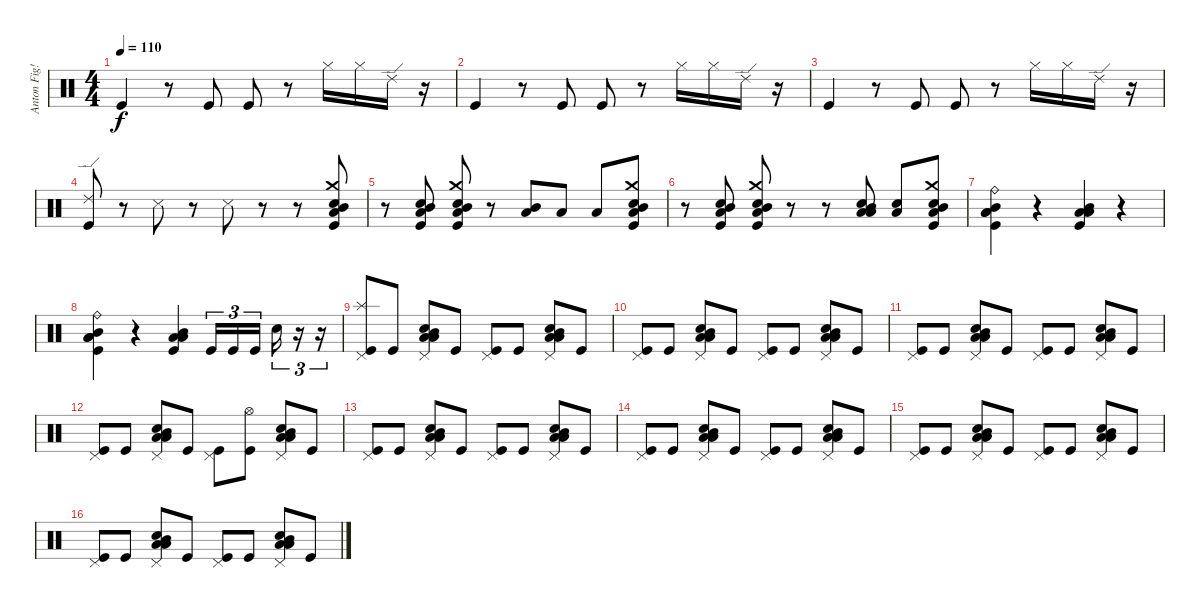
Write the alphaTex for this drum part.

\track ("Anton Fig!?!" "Anton Fig!") {instrument percussion}
\staff {score}
\articulation defaults
\ts (4 4)
\tempo 110
\clef neutral
\ks c "Kick (hit)".4{dy f}
r.8 "Kick (hit)".8 "Kick (hit)".8 r.8 "Hi-Hat (closed)".16 "Hi-Hat (closed)".16 "Ride (edge) 2".16 r.16 |
"Kick (hit)".4 r.8 "Kick (hit)".8 "Kick (hit)".8 r.8 "Hi-Hat (closed)".16 "Hi-Hat (closed)".16 "Ride (edge) 2".16 r.16 |
"Kick (hit)".4 r.8 "Kick (hit)".8 "Kick (hit)".8 r.8 "Hi-Hat (closed)".16 "Hi-Hat (closed)".16 "Ride (edge) 2".16 r.16 |
("Ride (edge) 2" "Kick (hit)").8 r.8 "Snare (side stick) 3".8 r.8 "Snare (side stick) 3".8 r.8 r.8 ("Crash medium (hit)" "Mid Tom (hit)" "Low Floor Tom (hit)" "Electric Snare (hit)" "Kick (hit)").8 |
r.8 ("Mid Tom (hit)" "Low Floor Tom (hit)" "Electric Snare (hit)" "Kick (hit)").8 ("Crash medium (hit)" "Mid Tom (hit)" "Low Floor Tom (hit)" "Electric Snare (hit)" "Kick (hit)").8 r.8 ("Mid Tom (hit)" "Low Floor Tom (hit)").8 "Low Floor Tom (hit)".8 "Low Floor Tom (hit)".8 ("Crash medium (hit)" "Mid Tom (hit)" "Low Floor Tom (hit)" "Electric Snare (hit)" "Kick (hit)").8 |
r.8 ("Mid Tom (hit)" "Low Floor Tom (hit)" "Electric Snare (hit)" "Kick (hit)").8 ("Crash medium (hit)" "Mid Tom (hit)" "Low Floor Tom (hit)" "Electric Snare (hit)" "Kick (hit)").8 r.8 r.8 ("Low Tom (hit)" "Low Floor Tom (hit)" "Mid Tom (hit)" "Electric Snare (hit)").8 ("Low Floor Tom (hit)" "Electric Snare (hit)").8 ("Crash medium (hit)" "Mid Tom (hit)" "Low Floor Tom (hit)" "Electric Snare (hit)" "Kick (hit)").8 |
("Ride (bell)" "Mid Tom (hit)" "Low Tom (hit)" "Low Floor Tom (hit)" "Kick (hit)").4 r.4 ("Mid Tom (hit)" "Low Tom (hit)" "Low Floor Tom (hit)" "Kick (hit)").4 r.4 |
("Ride (bell)" "Mid Tom (hit)" "Low Tom (hit)" "Low Floor Tom (hit)" "Kick (hit)").4 r.4 ("Mid Tom (hit)" "Low Tom (hit)" "Low Floor Tom (hit)" "Kick (hit)").4 "Kick (hit)".16{tu (3 2)} "Kick (hit)".16{tu (3 2)} "Kick (hit)".16{tu (3 2) beam splitsecondary} "Electric Snare (hit)".16{tu (3 2)} r.16{tu (3 2)} r.16{tu (3 2)} |
("Splash (hit)" "Kick (hit)" "Pedal Hi-Hat (hit)").8 "Kick (hit)".8 ("Low Tom (hit)" "Mid Tom (hit)" "Low Floor Tom (hit)" "Electric Snare (hit)" "Pedal Hi-Hat (hit)").8 "Kick (hit)".8 ("Kick (hit)" "Pedal Hi-Hat (hit)").8 "Kick (hit)".8 ("Low Tom (hit)" "Mid Tom (hit)" "Low Floor Tom (hit)" "Electric Snare (hit)" "Pedal Hi-Hat (hit)").8 "Kick (hit)".8 |
("Kick (hit)" "Pedal Hi-Hat (hit)").8 "Kick (hit)".8 ("Low Tom (hit)" "Mid Tom (hit)" "Low Floor Tom (hit)" "Electric Snare (hit)" "Pedal Hi-Hat (hit)").8 "Kick (hit)".8 ("Kick (hit)" "Pedal Hi-Hat (hit)").8 "Kick (hit)".8 ("Low Tom (hit)" "Mid Tom (hit)" "Low Floor Tom (hit)" "Electric Snare (hit)" "Pedal Hi-Hat (hit)").8 "Kick (hit)".8 |
("Kick (hit)" "Pedal Hi-Hat (hit)").8 "Kick (hit)".8 ("Low Tom (hit)" "Mid Tom (hit)" "Low Floor Tom (hit)" "Electric Snare (hit)" "Pedal Hi-Hat (hit)").8 "Kick (hit)".8 ("Kick (hit)" "Pedal Hi-Hat (hit)").8 "Kick (hit)".8 ("Low Tom (hit)" "Mid Tom (hit)" "Low Floor Tom (hit)" "Electric Snare (hit)" "Pedal Hi-Hat (hit)").8 "Kick (hit)".8 |
("Kick (hit)" "Pedal Hi-Hat (hit)").8 "Kick (hit)".8 ("Low Tom (hit)" "Mid Tom (hit)" "Low Floor Tom (hit)" "Electric Snare (hit)" "Pedal Hi-Hat (hit)").8 "Kick (hit)".8 ("Kick (hit)" "Pedal Hi-Hat (hit)").8 ("Kick (hit)" "Hi-Hat (open)").8 ("Low Tom (hit)" "Mid Tom (hit)" "Low Floor Tom (hit)" "Electric Snare (hit)" "Pedal Hi-Hat (hit)").8 "Kick (hit)".8 |
("Kick (hit)" "Pedal Hi-Hat (hit)").8 "Kick (hit)".8 ("Low Tom (hit)" "Mid Tom (hit)" "Low Floor Tom (hit)" "Electric Snare (hit)" "Pedal Hi-Hat (hit)").8 "Kick (hit)".8 ("Kick (hit)" "Pedal Hi-Hat (hit)").8 "Kick (hit)".8 ("Low Tom (hit)" "Mid Tom (hit)" "Low Floor Tom (hit)" "Electric Snare (hit)" "Pedal Hi-Hat (hit)").8 "Kick (hit)".8 |
("Kick (hit)" "Pedal Hi-Hat (hit)").8 "Kick (hit)".8 ("Low Tom (hit)" "Mid Tom (hit)" "Low Floor Tom (hit)" "Electric Snare (hit)" "Pedal Hi-Hat (hit)").8 "Kick (hit)".8 ("Kick (hit)" "Pedal Hi-Hat (hit)").8 "Kick (hit)".8 ("Low Tom (hit)" "Mid Tom (hit)" "Low Floor Tom (hit)" "Electric Snare (hit)" "Pedal Hi-Hat (hit)").8 "Kick (hit)".8 |
("Kick (hit)" "Pedal Hi-Hat (hit)").8 "Kick (hit)".8 ("Low Tom (hit)" "Mid Tom (hit)" "Low Floor Tom (hit)" "Electric Snare (hit)" "Pedal Hi-Hat (hit)").8 "Kick (hit)".8 ("Kick (hit)" "Pedal Hi-Hat (hit)").8 "Kick (hit)".8 ("Low Tom (hit)" "Mid Tom (hit)" "Low Floor Tom (hit)" "Electric Snare (hit)" "Pedal Hi-Hat (hit)").8 "Kick (hit)".8 |
("Kick (hit)" "Pedal Hi-Hat (hit)").8 "Kick (hit)".8 ("Low Tom (hit)" "Mid Tom (hit)" "Low Floor Tom (hit)" "Electric Snare (hit)" "Pedal Hi-Hat (hit)").8 "Kick (hit)".8 ("Kick (hit)" "Pedal Hi-Hat (hit)").8 "Kick (hit)".8 ("Low Tom (hit)" "Mid Tom (hit)" "Low Floor Tom (hit)" "Electric Snare (hit)" "Pedal Hi-Hat (hit)").8 "Kick (hit)".8
